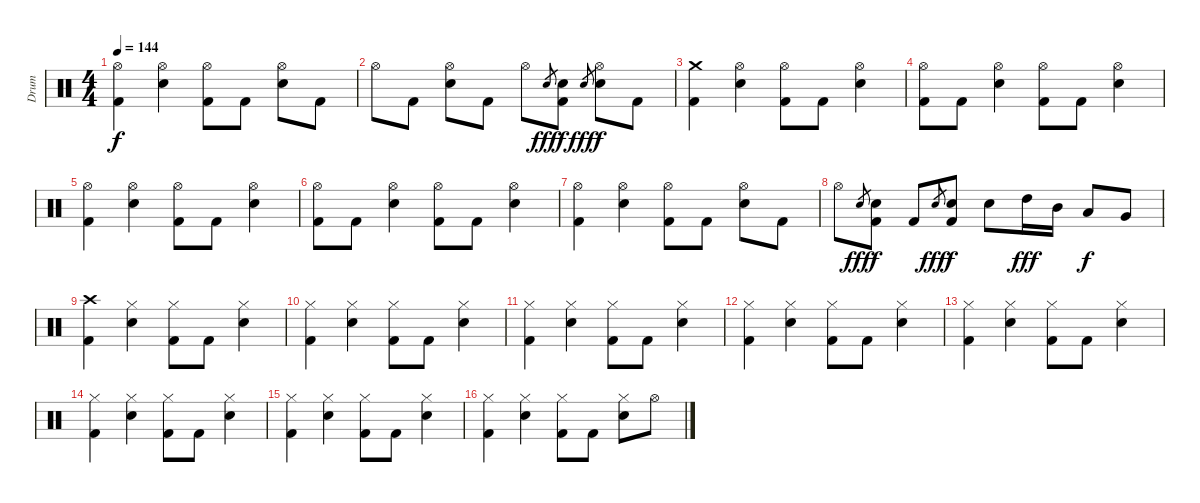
\track ("Drum" "Drum") {instrument percussion}
\staff {score}
\articulation defaults
\ts (4 4)
\tempo 144
\clef neutral
\ks c
("Hi-Hat (open)" "Kick (hit) 2").4{dy f} ("Hi-Hat (open)" "Electric Snare (hit)").4 ("Hi-Hat (open)" "Kick (hit) 2").8 "Kick (hit) 2".8 ("Hi-Hat (open)" "Electric Snare (hit)").8 "Kick (hit) 2".8 |
"Hi-Hat (open)".8 "Kick (hit) 2".8 ("Hi-Hat (open)" "Electric Snare (hit)").8 "Kick (hit) 2".8 "Hi-Hat (open)".8 "Electric Snare (hit)".8{gr dy fff} ("Electric Snare (hit)" "Kick (hit) 2").8{dy f} "Electric Snare (hit)".8{gr dy fff} ("Hi-Hat (open)" "Electric Snare (hit)").8{dy f} "Kick (hit) 2".8 |
("Crash medium (hit)" "Kick (hit) 2").4 ("Hi-Hat (open)" "Electric Snare (hit)").4 ("Hi-Hat (open)" "Kick (hit) 2").8 "Kick (hit) 2".8 ("Hi-Hat (open)" "Electric Snare (hit)").4 |
("Hi-Hat (open)" "Kick (hit) 2").8 "Kick (hit) 2".8 ("Hi-Hat (open)" "Electric Snare (hit)").4 ("Hi-Hat (open)" "Kick (hit) 2").8 "Kick (hit) 2".8 ("Hi-Hat (open)" "Electric Snare (hit)").4 |
("Hi-Hat (open)" "Kick (hit) 2").4 ("Hi-Hat (open)" "Electric Snare (hit)").4 ("Hi-Hat (open)" "Kick (hit) 2").8 "Kick (hit) 2".8 ("Hi-Hat (open)" "Electric Snare (hit)").4 |
("Hi-Hat (open)" "Kick (hit) 2").8 "Kick (hit) 2".8 ("Hi-Hat (open)" "Electric Snare (hit)").4 ("Hi-Hat (open)" "Kick (hit) 2").8 "Kick (hit) 2".8 ("Hi-Hat (open)" "Electric Snare (hit)").4 |
("Hi-Hat (open)" "Kick (hit) 2").4 ("Hi-Hat (open)" "Electric Snare (hit)").4 ("Hi-Hat (open)" "Kick (hit) 2").8 "Kick (hit) 2".8 ("Hi-Hat (open)" "Electric Snare (hit)").8 "Kick (hit) 2".8 |
"Hi-Hat (open)".8 "Electric Snare (hit)".8{gr dy fff} ("Electric Snare (hit)" "Kick (hit) 2").8{dy f} "Kick (hit) 2".8 "Electric Snare (hit)".8{gr dy fff} ("Electric Snare (hit)" "Kick (hit) 2").8{dy f} "Electric Snare (hit)".8 "High Tom (hit)".16{dy fff} "Mid Tom (hit)".16 "Low Tom (hit)".8{dy f} "Very Low Tom (hit)".8 |
("Crash high (hit)" "Kick (hit) 2").4 ("Hi-Hat (closed)" "Electric Snare (hit)").4 ("Hi-Hat (closed)" "Kick (hit) 2").8 "Kick (hit) 2".8 ("Hi-Hat (closed)" "Electric Snare (hit)").4 |
("Hi-Hat (closed)" "Kick (hit) 2").4 ("Hi-Hat (closed)" "Electric Snare (hit)").4 ("Hi-Hat (closed)" "Kick (hit) 2").8 "Kick (hit) 2".8 ("Hi-Hat (closed)" "Electric Snare (hit)").4 |
("Hi-Hat (closed)" "Kick (hit) 2").4 ("Hi-Hat (closed)" "Electric Snare (hit)").4 ("Hi-Hat (closed)" "Kick (hit) 2").8 "Kick (hit) 2".8 ("Hi-Hat (closed)" "Electric Snare (hit)").4 |
("Hi-Hat (closed)" "Kick (hit) 2").4 ("Hi-Hat (closed)" "Electric Snare (hit)").4 ("Hi-Hat (closed)" "Kick (hit) 2").8 "Kick (hit) 2".8 ("Hi-Hat (closed)" "Electric Snare (hit)").4 |
("Hi-Hat (closed)" "Kick (hit) 2").4 ("Hi-Hat (closed)" "Electric Snare (hit)").4 ("Hi-Hat (closed)" "Kick (hit) 2").8 "Kick (hit) 2".8 ("Hi-Hat (closed)" "Electric Snare (hit)").4 |
("Hi-Hat (closed)" "Kick (hit) 2").4 ("Hi-Hat (closed)" "Electric Snare (hit)").4 ("Hi-Hat (closed)" "Kick (hit) 2").8 "Kick (hit) 2".8 ("Hi-Hat (closed)" "Electric Snare (hit)").4 |
("Hi-Hat (closed)" "Kick (hit) 2").4 ("Hi-Hat (closed)" "Electric Snare (hit)").4 ("Hi-Hat (closed)" "Kick (hit) 2").8 "Kick (hit) 2".8 ("Hi-Hat (closed)" "Electric Snare (hit)").4 |
("Hi-Hat (closed)" "Kick (hit) 2").4 ("Hi-Hat (closed)" "Electric Snare (hit)").4 ("Hi-Hat (closed)" "Kick (hit) 2").8 "Kick (hit) 2".8 ("Hi-Hat (closed)" "Electric Snare (hit)").8 "Hi-Hat (open)".8
